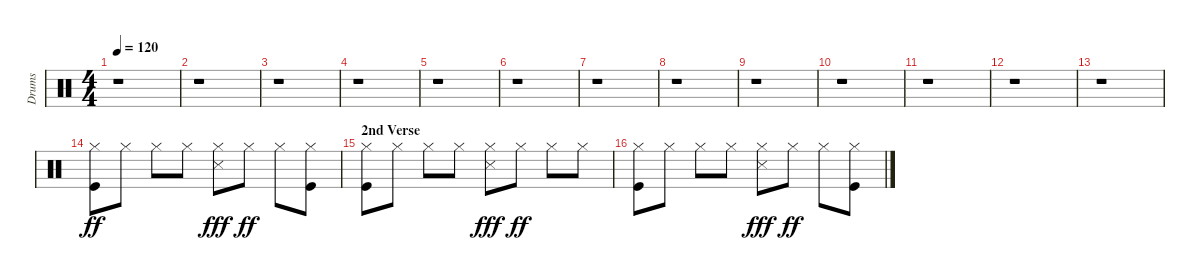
\track ("Drums" "Drums") {instrument percussion}
\staff {score}
\articulation defaults
\ts (4 4)
\tempo 120
\clef neutral
\ks c
r.1{dy ff} |
r.1 |
r.1 |
r.1 |
r.1 |
r.1 |
r.1 |
r.1 |
r.1 |
r.1 |
r.1 |
r.1 |
r.1 |
("Hi-Hat (closed)" "Kick (hit)").8 "Hi-Hat (closed)".8 "Hi-Hat (closed)".8 "Hi-Hat (closed)".8 ("Hi-Hat (closed)" "Snare (side stick) 3").8{dy fff} "Hi-Hat (closed)".8{dy ff} "Hi-Hat (closed)".8 ("Hi-Hat (closed)" "Kick (hit)").8 |
\section ("" "2nd Verse")
("Hi-Hat (closed)" "Kick (hit)").8 "Hi-Hat (closed)".8 "Hi-Hat (closed)".8 "Hi-Hat (closed)".8 ("Hi-Hat (closed)" "Snare (side stick) 3").8{dy fff} "Hi-Hat (closed)".8{dy ff} "Hi-Hat (closed)".8 "Hi-Hat (closed)".8 |
("Hi-Hat (closed)" "Kick (hit)").8 "Hi-Hat (closed)".8 "Hi-Hat (closed)".8 "Hi-Hat (closed)".8 ("Hi-Hat (closed)" "Snare (side stick) 3").8{dy fff} "Hi-Hat (closed)".8{dy ff} "Hi-Hat (closed)".8 ("Hi-Hat (closed)" "Kick (hit)").8
